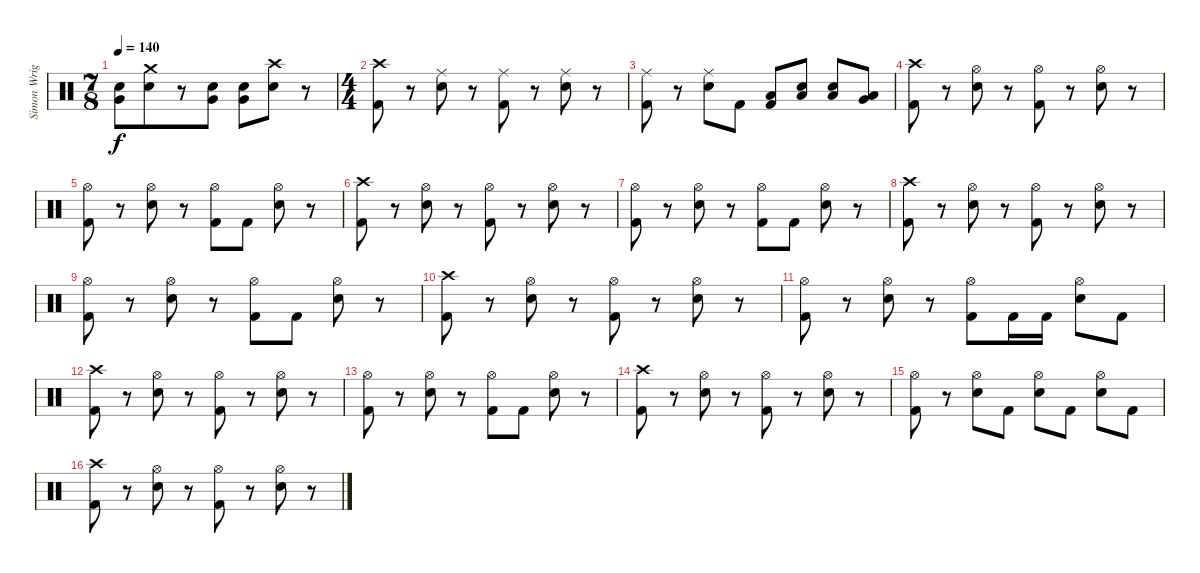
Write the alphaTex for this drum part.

\track ("Simon Wright" "Simon Wrig") {instrument percussion}
\staff {score}
\articulation defaults
\ts (7 8)
\tempo 140
\clef neutral
\ks c
("Very Low Tom (hit)" "Snare (hit) 2").8{dy f} ("Crash medium (hit)" "Snare (hit) 2").8 r.8 ("Very Low Tom (hit)" "Snare (hit) 2").8 ("Very Low Tom (hit)" "Snare (hit) 2").8 ("Crash high (hit)" "Snare (hit) 2").8 r.8 |
\ts (4 4)
("Crash high (hit)" "Kick (hit) 2").8 r.8 ("Ride (middle)" "Snare (hit) 2").8 r.8 ("Ride (middle)" "Kick (hit) 2").8 r.8 ("Ride (middle)" "Snare (hit) 2").8 r.8 |
("Ride (middle)" "Kick (hit) 2").8 r.8 ("Ride (middle)" "Snare (hit) 2").8 "Kick (hit) 2".8 ("Low Tom (hit)" "Kick (hit) 2").8 ("Low Tom (hit)" "Snare (hit) 2").8 ("Low Tom (hit)" "Snare (hit) 2").8 ("Low Tom (hit)" "Very Low Tom (hit)").8 |
("Crash high (hit)" "Kick (hit) 2").8 r.8 ("Hi-Hat (open)" "Snare (hit) 2").8 r.8 ("Hi-Hat (open)" "Kick (hit) 2").8 r.8 ("Hi-Hat (open)" "Snare (hit) 2").8 r.8 |
("Hi-Hat (open)" "Kick (hit) 2").8 r.8 ("Hi-Hat (open)" "Snare (hit) 2").8 r.8 ("Hi-Hat (open)" "Kick (hit) 2").8 "Kick (hit) 2".8 ("Hi-Hat (open)" "Snare (hit) 2").8 r.8 |
("Crash high (hit)" "Kick (hit) 2").8 r.8 ("Hi-Hat (open)" "Snare (hit) 2").8 r.8 ("Hi-Hat (open)" "Kick (hit) 2").8 r.8 ("Hi-Hat (open)" "Snare (hit) 2").8 r.8 |
("Hi-Hat (open)" "Kick (hit) 2").8 r.8 ("Hi-Hat (open)" "Snare (hit) 2").8 r.8 ("Hi-Hat (open)" "Kick (hit) 2").8 "Kick (hit) 2".8 ("Hi-Hat (open)" "Snare (hit) 2").8 r.8 |
("Crash high (hit)" "Kick (hit) 2").8 r.8 ("Hi-Hat (open)" "Snare (hit) 2").8 r.8 ("Hi-Hat (open)" "Kick (hit) 2").8 r.8 ("Hi-Hat (open)" "Snare (hit) 2").8 r.8 |
("Hi-Hat (open)" "Kick (hit) 2").8 r.8 ("Hi-Hat (open)" "Snare (hit) 2").8 r.8 ("Hi-Hat (open)" "Kick (hit) 2").8 "Kick (hit) 2".8 ("Hi-Hat (open)" "Snare (hit) 2").8 r.8 |
("Crash high (hit)" "Kick (hit) 2").8 r.8 ("Hi-Hat (open)" "Snare (hit) 2").8 r.8 ("Hi-Hat (open)" "Kick (hit) 2").8 r.8 ("Hi-Hat (open)" "Snare (hit) 2").8 r.8 |
("Hi-Hat (open)" "Kick (hit) 2").8 r.8 ("Hi-Hat (open)" "Snare (hit) 2").8 r.8 ("Hi-Hat (open)" "Kick (hit) 2").8 "Kick (hit) 2".16 "Kick (hit) 2".16 ("Hi-Hat (open)" "Snare (hit) 2").8 "Kick (hit) 2".8 |
("Crash high (hit)" "Kick (hit) 2").8 r.8 ("Hi-Hat (open)" "Snare (hit) 2").8 r.8 ("Hi-Hat (open)" "Kick (hit) 2").8 r.8 ("Hi-Hat (open)" "Snare (hit) 2").8 r.8 |
("Hi-Hat (open)" "Kick (hit) 2").8 r.8 ("Hi-Hat (open)" "Snare (hit) 2").8 r.8 ("Hi-Hat (open)" "Kick (hit) 2").8 "Kick (hit) 2".8 ("Hi-Hat (open)" "Snare (hit) 2").8 r.8 |
("Crash high (hit)" "Kick (hit) 2").8 r.8 ("Hi-Hat (open)" "Snare (hit) 2").8 r.8 ("Hi-Hat (open)" "Kick (hit) 2").8 r.8 ("Hi-Hat (open)" "Snare (hit) 2").8 r.8 |
("Hi-Hat (open)" "Kick (hit) 2").8 r.8 ("Hi-Hat (open)" "Snare (hit) 2").8 "Kick (hit) 2".8 ("Hi-Hat (open)" "Snare (hit) 2").8 "Kick (hit) 2".8 ("Hi-Hat (open)" "Snare (hit) 2").8 "Kick (hit) 2".8 |
("Crash high (hit)" "Kick (hit) 2").8 r.8 ("Hi-Hat (open)" "Snare (hit) 2").8 r.8 ("Hi-Hat (open)" "Kick (hit) 2").8 r.8 ("Hi-Hat (open)" "Snare (hit) 2").8 r.8
